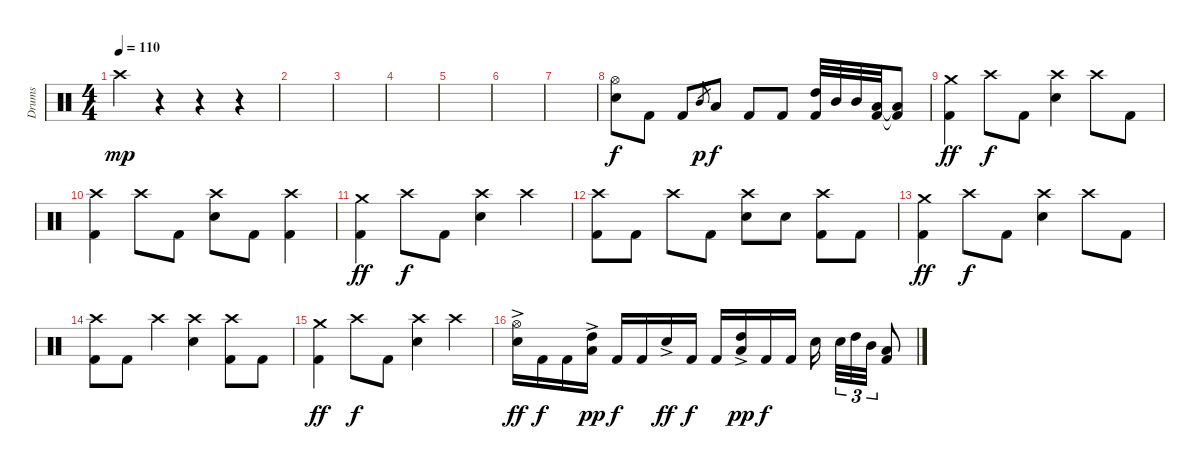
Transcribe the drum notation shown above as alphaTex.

\track ("Drums" "Drums") {instrument percussion}
\staff {score}
\articulation defaults
\ts (4 4)
\tempo 110
\clef neutral
\ks c "Crash high (hit)".4{dy mp}
r.4 r.4 r.4 |
|
|
|
|
|
|
("Hi-Hat (open)" "Electric Snare (hit)").8{dy f} "Kick (hit) 2".8 "Kick (hit) 2".8 "Mid Tom (hit)".8{gr dy p} "Low Tom (hit)".8{dy f} "Kick (hit) 2".8 "Kick (hit) 2".8 ("High Tom (hit)" "Kick (hit) 2").32 "Mid Tom (hit)".32 "Mid Tom (hit)".32 ("Low Tom (hit)" "Kick (hit) 2").32 ("Low Tom (hit)"{t} "Kick (hit) 2"{t}).8 |
("Crash medium (hit)" "Kick (hit) 2").4{dy ff} "Crash high (hit)".8{dy f} "Kick (hit) 2".8 ("Crash high (hit)" "Electric Snare (hit)").4 "Crash high (hit)".8 "Kick (hit) 2".8 |
("Crash high (hit)" "Kick (hit) 2").4 "Crash high (hit)".8 "Kick (hit) 2".8 ("Crash high (hit)" "Electric Snare (hit)").8 "Kick (hit) 2".8 ("Crash high (hit)" "Kick (hit) 2").4 |
("Crash medium (hit)" "Kick (hit) 2").4{dy ff} "Crash high (hit)".8{dy f} "Kick (hit) 2".8 ("Crash high (hit)" "Electric Snare (hit)").4 "Crash high (hit)".4 |
("Crash high (hit)" "Kick (hit) 2").8 "Kick (hit) 2".8 "Crash high (hit)".8 "Kick (hit) 2".8 ("Crash high (hit)" "Electric Snare (hit)").8 "Electric Snare (hit)".8 ("Crash high (hit)" "Kick (hit) 2").8 "Kick (hit) 2".8 |
("Crash medium (hit)" "Kick (hit) 2").4{dy ff} "Crash high (hit)".8{dy f} "Kick (hit) 2".8 ("Crash high (hit)" "Electric Snare (hit)").4 "Crash high (hit)".8 "Kick (hit) 2".8 |
("Crash high (hit)" "Kick (hit) 2").8 "Kick (hit) 2".8 "Crash high (hit)".4 ("Crash high (hit)" "Electric Snare (hit)").4 ("Crash high (hit)" "Kick (hit) 2").8 "Kick (hit) 2".8 |
("Crash medium (hit)" "Kick (hit) 2").4{dy ff} "Crash high (hit)".8{dy f} "Kick (hit) 2".8 ("Crash high (hit)" "Electric Snare (hit)").4 "Crash high (hit)".4 |
("Hi-Hat (open)"{ac} "Electric Snare (hit)").16{dy ff} "Kick (hit) 2".16{dy f} "Kick (hit) 2".16 ("High Tom (hit)"{ac} "Low Tom (hit)").16{dy pp} "Kick (hit) 2".16{dy f} "Kick (hit) 2".16 "Electric Snare (hit)"{ac}.16{dy ff} "Kick (hit) 2".16{dy f} "Kick (hit) 2".16 ("High Tom (hit)"{ac} "Low Tom (hit)").16{dy pp} "Kick (hit) 2".16{dy f} "Kick (hit) 2".16 "Electric Snare (hit)".16{beam splitsecondary} "Electric Snare (hit)".32{tu (3 2)} "High Tom (hit)".32{tu (3 2)} "Mid Tom (hit)".32{tu (3 2)} ("Low Tom (hit)" "Kick (hit) 2").8
